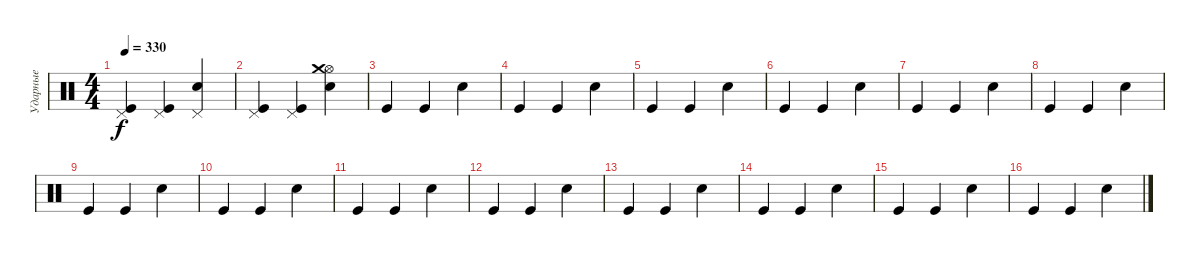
\track ("Ударные" "Ударные") {instrument percussion}
\staff {score}
\articulation defaults
\ts (4 4)
\tempo 330
\clef neutral
\ks c
("Kick (hit)" "Pedal Hi-Hat (hit)").4{dy f} ("Kick (hit)" "Pedal Hi-Hat (hit)").4 ("Snare (hit) 2" "Pedal Hi-Hat (hit)").4 |
("Kick (hit)" "Pedal Hi-Hat (hit)").4 ("Kick (hit)" "Pedal Hi-Hat (hit)").4 ("Snare (hit) 2" "Hi-Hat (open)" "Crash medium (hit)").4 |
"Kick (hit)".4 "Kick (hit)".4 "Snare (hit) 2".4 |
"Kick (hit)".4 "Kick (hit)".4 "Snare (hit) 2".4 |
"Kick (hit)".4 "Kick (hit)".4 "Snare (hit) 2".4 |
"Kick (hit)".4 "Kick (hit)".4 "Snare (hit) 2".4 |
"Kick (hit)".4 "Kick (hit)".4 "Snare (hit) 2".4 |
"Kick (hit)".4 "Kick (hit)".4 "Snare (hit) 2".4 |
"Kick (hit)".4 "Kick (hit)".4 "Snare (hit) 2".4 |
"Kick (hit)".4 "Kick (hit)".4 "Snare (hit) 2".4 |
"Kick (hit)".4 "Kick (hit)".4 "Snare (hit) 2".4 |
"Kick (hit)".4 "Kick (hit)".4 "Snare (hit) 2".4 |
"Kick (hit)".4 "Kick (hit)".4 "Snare (hit) 2".4 |
"Kick (hit)".4 "Kick (hit)".4 "Snare (hit) 2".4 |
"Kick (hit)".4 "Kick (hit)".4 "Snare (hit) 2".4 |
"Kick (hit)".4 "Kick (hit)".4 "Snare (hit) 2".4
